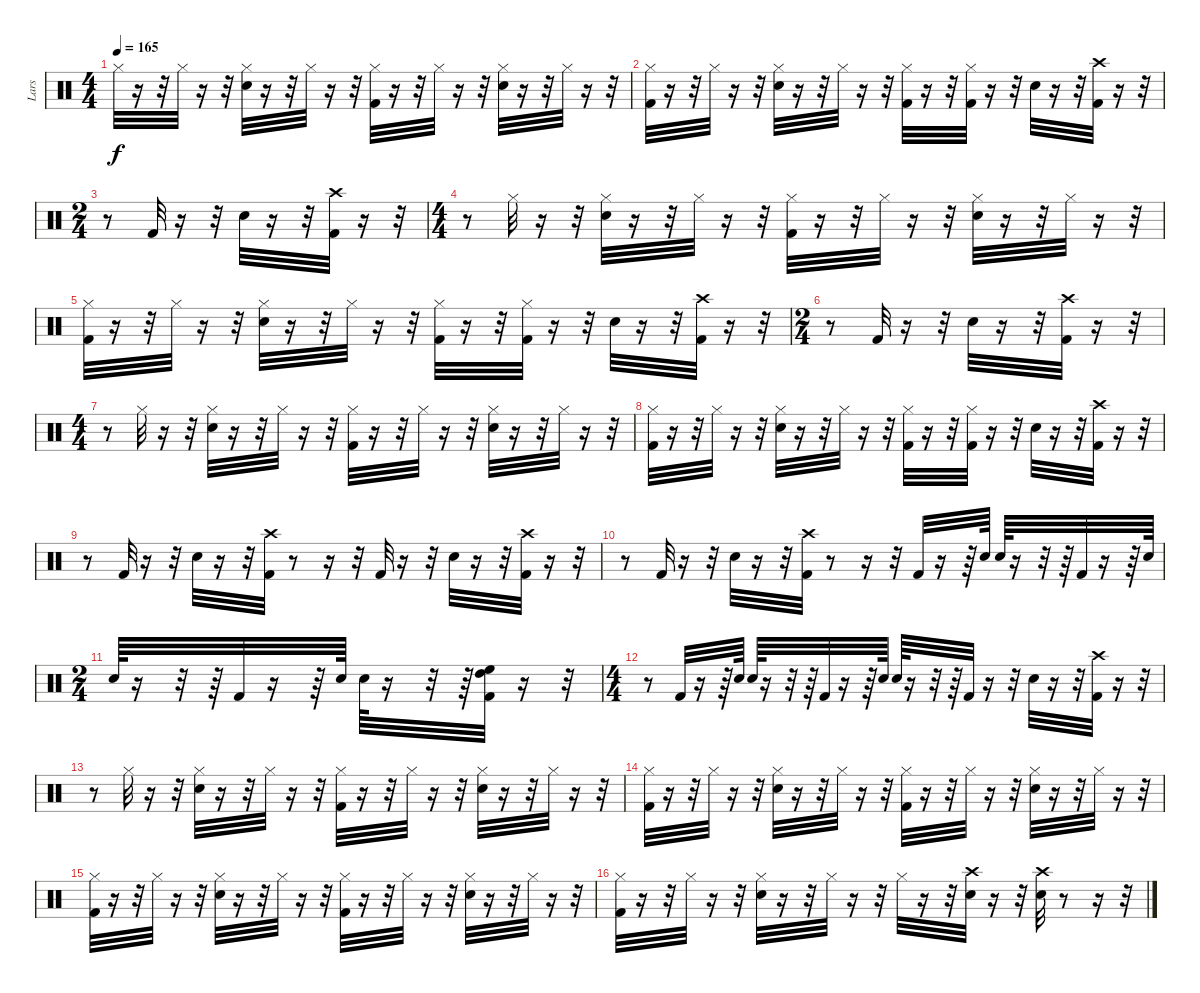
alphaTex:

\track ("Lars" "Lars") {instrument percussion}
\staff {score}
\articulation defaults
\ts (4 4)
\tempo 165
\clef neutral
\ks c "Hi-Hat (closed)".32{dy f}
r.16 r.32 "Hi-Hat (closed)".32 r.16 r.32 ("Snare (hit) 2" "Hi-Hat (closed)").32 r.16 r.32 "Hi-Hat (closed)".32 r.16 r.32 ("Kick (hit) 2" "Hi-Hat (closed)").32 r.16 r.32 "Hi-Hat (closed)".32 r.16 r.32 ("Snare (hit) 2" "Hi-Hat (closed)").32 r.16 r.32 "Hi-Hat (closed)".32 r.16 r.32 |
("Hi-Hat (closed)" "Kick (hit) 2").32 r.16 r.32 "Hi-Hat (closed)".32 r.16 r.32 ("Snare (hit) 2" "Hi-Hat (closed)").32 r.16 r.32 "Hi-Hat (closed)".32 r.16 r.32 ("Hi-Hat (closed)" "Kick (hit) 2").32 r.16 r.32 ("Hi-Hat (closed)" "Kick (hit) 2").32 r.16 r.32 "Snare (hit) 2".32 r.16 r.32 ("Crash high (hit)" "Kick (hit) 2").32 r.16 r.32 |
\ts (2 4)
r.8 "Kick (hit) 2".32 r.16 r.32 "Snare (hit) 2".32 r.16 r.32 ("Crash high (hit)" "Kick (hit) 2").32 r.16 r.32 |
\ts (4 4)
r.8 "Hi-Hat (closed)".32 r.16 r.32 ("Snare (hit) 2" "Hi-Hat (closed)").32 r.16 r.32 "Hi-Hat (closed)".32 r.16 r.32 ("Hi-Hat (closed)" "Kick (hit) 2").32 r.16 r.32 "Hi-Hat (closed)".32 r.16 r.32 ("Hi-Hat (closed)" "Snare (hit) 2").32 r.16 r.32 "Hi-Hat (closed)".32 r.16 r.32 |
("Hi-Hat (closed)" "Kick (hit) 2").32 r.16 r.32 "Hi-Hat (closed)".32 r.16 r.32 ("Snare (hit) 2" "Hi-Hat (closed)").32 r.16 r.32 "Hi-Hat (closed)".32 r.16 r.32 ("Hi-Hat (closed)" "Kick (hit) 2").32 r.16 r.32 ("Hi-Hat (closed)" "Kick (hit) 2").32 r.16 r.32 "Snare (hit) 2".32 r.16 r.32 ("Crash high (hit)" "Kick (hit) 2").32 r.16 r.32 |
\ts (2 4)
r.8 "Kick (hit) 2".32 r.16 r.32 "Snare (hit) 2".32 r.16 r.32 ("Crash high (hit)" "Kick (hit) 2").32 r.16 r.32 |
\ts (4 4)
r.8 "Hi-Hat (closed)".32 r.16 r.32 ("Snare (hit) 2" "Hi-Hat (closed)").32 r.16 r.32 "Hi-Hat (closed)".32 r.16 r.32 ("Hi-Hat (closed)" "Kick (hit) 2").32 r.16 r.32 "Hi-Hat (closed)".32 r.16 r.32 ("Hi-Hat (closed)" "Snare (hit) 2").32 r.16 r.32 "Hi-Hat (closed)".32 r.16 r.32 |
("Hi-Hat (closed)" "Kick (hit) 2").32 r.16 r.32 "Hi-Hat (closed)".32 r.16 r.32 ("Snare (hit) 2" "Hi-Hat (closed)").32 r.16 r.32 "Hi-Hat (closed)".32 r.16 r.32 ("Hi-Hat (closed)" "Kick (hit) 2").32 r.16 r.32 ("Hi-Hat (closed)" "Kick (hit) 2").32 r.16 r.32 "Snare (hit) 2".32 r.16 r.32 ("Crash high (hit)" "Kick (hit) 2").32 r.16 r.32 |
r.8 "Kick (hit) 2".32 r.16 r.32 "Snare (hit) 2".32 r.16 r.32 ("Crash high (hit)" "Kick (hit) 2").32 r.8 r.16 r.32 "Kick (hit) 2".32 r.16 r.32 "Snare (hit) 2".32 r.16 r.32 ("Crash high (hit)" "Kick (hit) 2").32 r.16 r.32 |
r.8 "Kick (hit) 2".32 r.16 r.32 "Snare (hit) 2".32 r.16 r.32 ("Crash high (hit)" "Kick (hit) 2").32 r.8 r.16 r.32 "Kick (hit) 2".32 r.16 r.64 "Snare (hit) 2".64 "Snare (hit) 2".64 r.16 r.32 r.64 "Kick (hit) 2".32 r.16 r.64 "Snare (hit) 2".64 |
\ts (2 4)
"Snare (hit) 2".64 r.16 r.32 r.64 "Kick (hit) 2".32 r.16 r.64 "Snare (hit) 2".64 "Snare (hit) 2".64 r.16 r.32 r.64 ("High Tom (hit)" "High Floor Tom (hit)" "Kick (hit) 2").32 r.16 r.32 |
\ts (4 4)
r.8 "Kick (hit) 2".32 r.16 r.64 "Snare (hit) 2".64 "Snare (hit) 2".64 r.16 r.32 r.64 "Kick (hit) 2".32 r.16 r.64 "Snare (hit) 2".64 "Snare (hit) 2".64 r.16 r.32 r.64 "Kick (hit) 2".32 r.16 r.32 "Snare (hit) 2".32 r.16 r.32 ("Crash high (hit)" "Kick (hit) 2").32 r.16 r.32 |
r.8 "Hi-Hat (closed)".32 r.16 r.32 ("Snare (hit) 2" "Hi-Hat (closed)").32 r.16 r.32 "Hi-Hat (closed)".32 r.16 r.32 ("Hi-Hat (closed)" "Kick (hit) 2").32 r.16 r.32 "Hi-Hat (closed)".32 r.16 r.32 ("Hi-Hat (closed)" "Snare (hit) 2").32 r.16 r.32 "Hi-Hat (closed)".32 r.16 r.32 |
("Kick (hit) 2" "Hi-Hat (closed)").32 r.16 r.32 "Hi-Hat (closed)".32 r.16 r.32 ("Snare (hit) 2" "Hi-Hat (closed)").32 r.16 r.32 "Hi-Hat (closed)".32 r.16 r.32 ("Hi-Hat (closed)" "Kick (hit) 2").32 r.16 r.32 "Hi-Hat (closed)".32 r.16 r.32 ("Hi-Hat (closed)" "Snare (hit) 2").32 r.16 r.32 "Hi-Hat (closed)".32 r.16 r.32 |
("Kick (hit) 2" "Hi-Hat (closed)").32 r.16 r.32 "Hi-Hat (closed)".32 r.16 r.32 ("Snare (hit) 2" "Hi-Hat (closed)").32 r.16 r.32 "Hi-Hat (closed)".32 r.16 r.32 ("Hi-Hat (closed)" "Kick (hit) 2").32 r.16 r.32 "Hi-Hat (closed)".32 r.16 r.32 ("Hi-Hat (closed)" "Snare (hit) 2").32 r.16 r.32 "Hi-Hat (closed)".32 r.16 r.32 |
("Hi-Hat (closed)" "Kick (hit) 2").32 r.16 r.32 "Hi-Hat (closed)".32 r.16 r.32 ("Snare (hit) 2" "Hi-Hat (closed)").32 r.16 r.32 "Hi-Hat (closed)".32 r.16 r.32 "Hi-Hat (closed)".32 r.16 r.32 ("Crash high (hit)" "Snare (hit) 2").32 r.16 r.32 ("Crash high (hit)" "Snare (hit) 2").32 r.8 r.16 r.32
